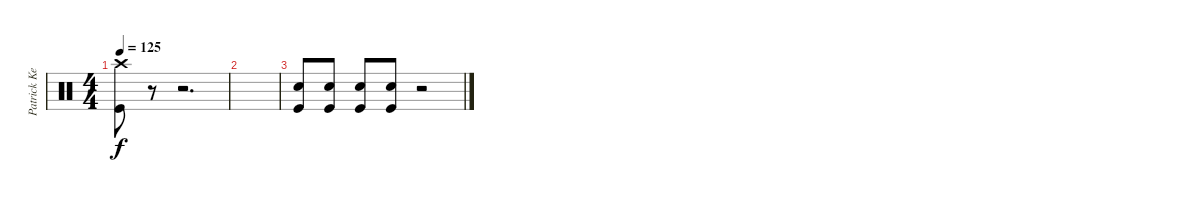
\track ("Patrick Keeler" "Patrick Ke") {instrument percussion}
\staff {score}
\articulation defaults
\ts (4 4)
\tempo 125
\clef neutral
\ks c
("Crash high (hit)" "Kick (hit)").8{dy f} r.8 r.2{d} |
|
("Electric Snare (hit)" "Kick (hit)").8 ("Electric Snare (hit)" "Kick (hit)").8 ("Electric Snare (hit)" "Kick (hit)").8 ("Electric Snare (hit)" "Kick (hit)").8 r.2
